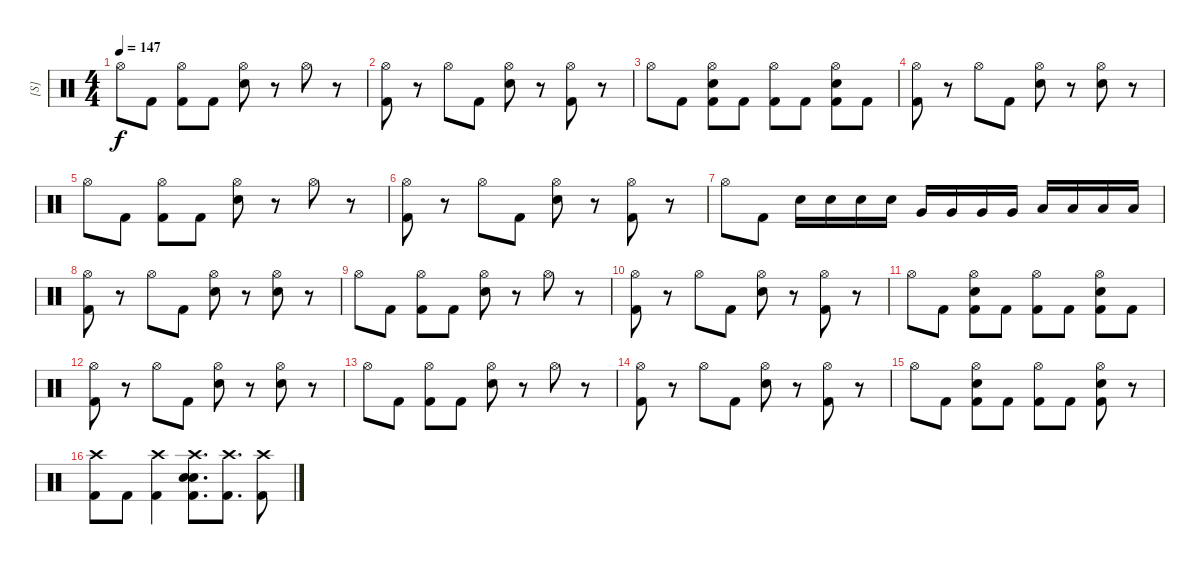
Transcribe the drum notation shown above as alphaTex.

\track ("[S]" "[S]") {instrument percussion}
\staff {score}
\articulation defaults
\ts (4 4)
\tempo 147
\clef neutral
\ks c "Hi-Hat (open)".8{dy f} "Kick (hit) 2".8
("Hi-Hat (open)" "Kick (hit) 2").8 "Kick (hit) 2".8 ("Hi-Hat (open)" "Electric Snare (hit)").8 r.8 "Hi-Hat (open)".8 r.8 |
("Hi-Hat (open)" "Kick (hit) 2").8 r.8 "Hi-Hat (open)".8 "Kick (hit) 2".8 ("Hi-Hat (open)" "Snare (hit) 2").8 r.8 ("Hi-Hat (open)" "Kick (hit) 2").8 r.8 |
"Hi-Hat (open)".8 "Kick (hit) 2".8 ("Hi-Hat (open)" "Snare (hit) 2" "Kick (hit) 2").8 "Kick (hit) 2".8 ("Hi-Hat (open)" "Kick (hit) 2").8 "Kick (hit) 2".8 ("Hi-Hat (open)" "Snare (hit) 2" "Kick (hit) 2").8 "Kick (hit) 2".8 |
("Hi-Hat (open)" "Kick (hit) 2").8 r.8 "Hi-Hat (open)".8 "Kick (hit) 2".8 ("Hi-Hat (open)" "Snare (hit) 2").8 r.8 ("Hi-Hat (open)" "Snare (hit) 2").8 r.8 |
"Hi-Hat (open)".8 "Kick (hit) 2".8 ("Hi-Hat (open)" "Kick (hit) 2").8 "Kick (hit) 2".8 ("Hi-Hat (open)" "Electric Snare (hit)").8 r.8 "Hi-Hat (open)".8 r.8 |
("Hi-Hat (open)" "Kick (hit) 2").8 r.8 "Hi-Hat (open)".8 "Kick (hit) 2".8 ("Hi-Hat (open)" "Snare (hit) 2").8 r.8 ("Hi-Hat (open)" "Kick (hit) 2").8 r.8 |
"Hi-Hat (open)".8 "Kick (hit) 2".8 "Snare (hit) 2".16 "Snare (hit) 2".16 "Snare (hit) 2".16 "Snare (hit) 2".16 "Very Low Tom (hit)".16 "Very Low Tom (hit)".16 "Very Low Tom (hit)".16 "Very Low Tom (hit)".16 "Low Tom (hit)".16 "Low Tom (hit)".16 "Low Tom (hit)".16 "Low Tom (hit)".16 |
("Hi-Hat (open)" "Kick (hit) 2").8 r.8 "Hi-Hat (open)".8 "Kick (hit) 2".8 ("Hi-Hat (open)" "Snare (hit) 2").8 r.8 ("Hi-Hat (open)" "Snare (hit) 2").8 r.8 |
"Hi-Hat (open)".8 "Kick (hit) 2".8 ("Hi-Hat (open)" "Kick (hit) 2").8 "Kick (hit) 2".8 ("Hi-Hat (open)" "Electric Snare (hit)").8 r.8 "Hi-Hat (open)".8 r.8 |
("Hi-Hat (open)" "Kick (hit) 2").8 r.8 "Hi-Hat (open)".8 "Kick (hit) 2".8 ("Hi-Hat (open)" "Snare (hit) 2").8 r.8 ("Hi-Hat (open)" "Kick (hit) 2").8 r.8 |
"Hi-Hat (open)".8 "Kick (hit) 2".8 ("Hi-Hat (open)" "Snare (hit) 2" "Kick (hit) 2").8 "Kick (hit) 2".8 ("Hi-Hat (open)" "Kick (hit) 2").8 "Kick (hit) 2".8 ("Hi-Hat (open)" "Snare (hit) 2" "Kick (hit) 2").8 "Kick (hit) 2".8 |
("Hi-Hat (open)" "Kick (hit) 2").8 r.8 "Hi-Hat (open)".8 "Kick (hit) 2".8 ("Hi-Hat (open)" "Snare (hit) 2").8 r.8 ("Hi-Hat (open)" "Snare (hit) 2").8 r.8 |
"Hi-Hat (open)".8 "Kick (hit) 2".8 ("Hi-Hat (open)" "Kick (hit) 2").8 "Kick (hit) 2".8 ("Hi-Hat (open)" "Electric Snare (hit)").8 r.8 "Hi-Hat (open)".8 r.8 |
("Hi-Hat (open)" "Kick (hit) 2").8 r.8 "Hi-Hat (open)".8 "Kick (hit) 2".8 ("Hi-Hat (open)" "Snare (hit) 2").8 r.8 ("Hi-Hat (open)" "Kick (hit) 2").8 r.8 |
"Hi-Hat (open)".8 "Kick (hit) 2".8 ("Hi-Hat (open)" "Snare (hit) 2" "Kick (hit) 2").8 "Kick (hit) 2".8 ("Hi-Hat (open)" "Kick (hit) 2").8 "Kick (hit) 2".8 ("Hi-Hat (open)" "Snare (hit) 2" "Kick (hit) 2").8 r.8 |
("Crash high (hit)" "Kick (hit) 2").8 "Kick (hit) 2".8 ("Crash high (hit)" "Kick (hit) 2").4 ("Crash high (hit)" "Electric Snare (hit)" "Snare (hit) 2" "Kick (hit) 2").8{d} ("Crash high (hit)" "Kick (hit) 2").8{d} ("Crash high (hit)" "Kick (hit) 2").8
